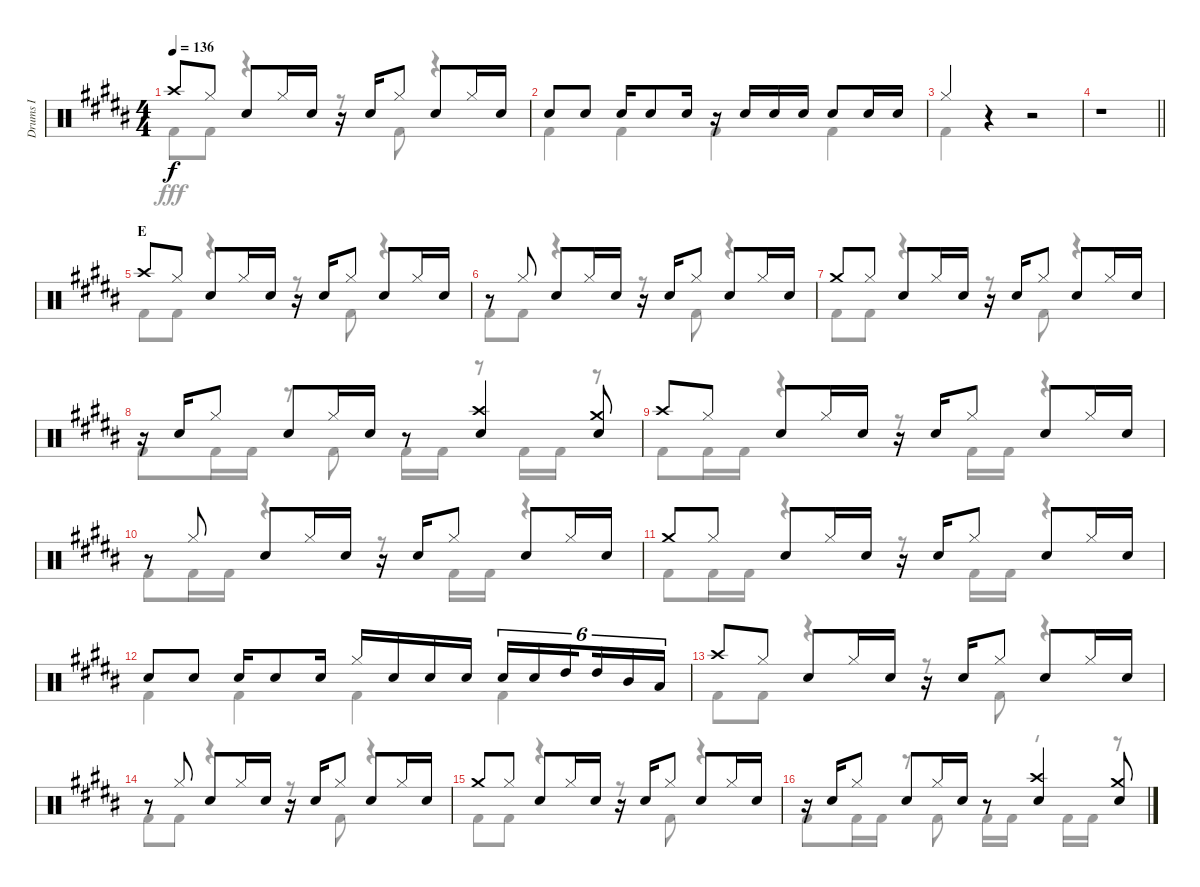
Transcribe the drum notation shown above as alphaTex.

\track ("Drums I" "Drums I") {instrument percussion}
\staff {score}
\articulation defaults
\voice
\ts (4 4)
\tempo 136
\clef neutral
\ks b "Crash high (hit)".8{dy f} "Hi-Hat (closed)".8 "Snare (hit) 2".8 "Hi-Hat (closed)".16 "Snare (hit) 2".16
r.16 "Snare (hit) 2".16 "Hi-Hat (closed)".8 "Snare (hit) 2".8 "Hi-Hat (closed)".16 "Snare (hit) 2".16 |
"Snare (hit) 2".8 "Snare (hit) 2".8 "Snare (hit) 2".16 "Snare (hit) 2".8 "Snare (hit) 2".16 r.16 "Snare (hit) 2".16 "Snare (hit) 2".16 "Snare (hit) 2".16 "Snare (hit) 2".8 "Snare (hit) 2".16 "Snare (hit) 2".16 |
"Hi-Hat (closed)".4 r.4 r.2 |
\barLineRight lightlight
r.1 |
\section ("" "E")
"Crash high (hit)".8 "Hi-Hat (closed)".8 "Snare (hit) 2".8 "Hi-Hat (closed)".16 "Snare (hit) 2".16 r.16 "Snare (hit) 2".16 "Hi-Hat (closed)".8 "Snare (hit) 2".8 "Hi-Hat (closed)".16 "Snare (hit) 2".16 |
r.8 "Hi-Hat (closed)".8 "Snare (hit) 2".8 "Hi-Hat (closed)".16 "Snare (hit) 2".16 r.16 "Snare (hit) 2".16 "Hi-Hat (closed)".8 "Snare (hit) 2".8 "Hi-Hat (closed)".16 "Snare (hit) 2".16 |
"Crash medium (hit)".8 "Hi-Hat (closed)".8 "Snare (hit) 2".8 "Hi-Hat (closed)".16 "Snare (hit) 2".16 r.16 "Snare (hit) 2".16 "Hi-Hat (closed)".8 "Snare (hit) 2".8 "Hi-Hat (closed)".16 "Snare (hit) 2".16 |
r.16 "Snare (hit) 2".16 "Hi-Hat (closed)".8 "Snare (hit) 2".8 "Hi-Hat (closed)".16 "Snare (hit) 2".16 r.8 ("Crash high (hit)" "Snare (hit) 2").4 ("Crash medium (hit)" "Snare (hit) 2").8 |
"Crash high (hit)".8 "Hi-Hat (closed)".8 "Snare (hit) 2".8 "Hi-Hat (closed)".16 "Snare (hit) 2".16 r.16 "Snare (hit) 2".16 "Hi-Hat (closed)".8 "Snare (hit) 2".8 "Hi-Hat (closed)".16 "Snare (hit) 2".16 |
r.8 "Hi-Hat (closed)".8 "Snare (hit) 2".8 "Hi-Hat (closed)".16 "Snare (hit) 2".16 r.16 "Snare (hit) 2".16 "Hi-Hat (closed)".8 "Snare (hit) 2".8 "Hi-Hat (closed)".16 "Snare (hit) 2".16 |
"Crash medium (hit)".8 "Hi-Hat (closed)".8 "Snare (hit) 2".8 "Hi-Hat (closed)".16 "Snare (hit) 2".16 r.16 "Snare (hit) 2".16 "Hi-Hat (closed)".8 "Snare (hit) 2".8 "Hi-Hat (closed)".16 "Snare (hit) 2".16 |
"Snare (hit) 2".8 "Snare (hit) 2".8 "Snare (hit) 2".16 "Snare (hit) 2".8 "Snare (hit) 2".16 "Hi-Hat (closed)".16 "Snare (hit) 2".16 "Snare (hit) 2".16 "Snare (hit) 2".16 "Snare (hit) 2".16{tu (6 4)} "Snare (hit) 2".16{tu (6 4)} "High Tom (hit)".16{tu (6 4) beam splitsecondary} "High Tom (hit)".16{tu (6 4)} "Mid Tom (hit)".16{tu (6 4)} "Low Tom (hit)".16{tu (6 4)} |
"Crash high (hit)".8 "Hi-Hat (closed)".8 "Snare (hit) 2".8 "Hi-Hat (closed)".16 "Snare (hit) 2".16 r.16 "Snare (hit) 2".16 "Hi-Hat (closed)".8 "Snare (hit) 2".8 "Hi-Hat (closed)".16 "Snare (hit) 2".16 |
r.8 "Hi-Hat (closed)".8 "Snare (hit) 2".8 "Hi-Hat (closed)".16 "Snare (hit) 2".16 r.16 "Snare (hit) 2".16 "Hi-Hat (closed)".8 "Snare (hit) 2".8 "Hi-Hat (closed)".16 "Snare (hit) 2".16 |
"Crash medium (hit)".8 "Hi-Hat (closed)".8 "Snare (hit) 2".8 "Hi-Hat (closed)".16 "Snare (hit) 2".16 r.16 "Snare (hit) 2".16 "Hi-Hat (closed)".8 "Snare (hit) 2".8 "Hi-Hat (closed)".16 "Snare (hit) 2".16 |
r.16 "Snare (hit) 2".16 "Hi-Hat (closed)".8 "Snare (hit) 2".8 "Hi-Hat (closed)".16 "Snare (hit) 2".16 r.8 ("Crash high (hit)" "Snare (hit) 2").4 ("Crash medium (hit)" "Snare (hit) 2").8
\voice
\clef neutral
\ottava regular
\simile none
\ks b "Kick (hit) 2".8{dy fff} "Kick (hit) 2".8
r.4 r.8 "Kick (hit) 2".8 r.4 |
"Kick (hit) 2".4 "Kick (hit) 2".4 "Kick (hit) 2".4 "Kick (hit) 2".4 |
"Kick (hit) 2".4 r.4 r.2 |
\barLineRight lightlight
r.1 |
"Kick (hit) 2".8 "Kick (hit) 2".8 r.4 r.8 "Kick (hit) 2".8 r.4 |
"Kick (hit) 2".8 "Kick (hit) 2".8 r.4 r.8 "Kick (hit) 2".8 r.4 |
"Kick (hit) 2".8 "Kick (hit) 2".8 r.4 r.8 "Kick (hit) 2".8 r.4 |
"Kick (hit) 2".8 "Kick (hit) 2".16 "Kick (hit) 2".16 r.8 "Kick (hit) 2".8 "Kick (hit) 2".16 "Kick (hit) 2".16 r.8 "Kick (hit) 2".16 "Kick (hit) 2".16 r.8 |
"Kick (hit) 2".8 "Kick (hit) 2".16 "Kick (hit) 2".16 r.4 r.8 "Kick (hit) 2".16 "Kick (hit) 2".16 r.4 |
"Kick (hit) 2".8 "Kick (hit) 2".16 "Kick (hit) 2".16 r.4 r.8 "Kick (hit) 2".16 "Kick (hit) 2".16 r.4 |
"Kick (hit) 2".8 "Kick (hit) 2".16 "Kick (hit) 2".16 r.4 r.8 "Kick (hit) 2".16 "Kick (hit) 2".16 r.4 |
"Kick (hit) 2".4 "Kick (hit) 2".4 "Kick (hit) 2".4 "Kick (hit) 2".4 |
"Kick (hit) 2".8 "Kick (hit) 2".8 r.4 r.8 "Kick (hit) 2".8 r.4 |
"Kick (hit) 2".8 "Kick (hit) 2".8 r.4 r.8 "Kick (hit) 2".8 r.4 |
"Kick (hit) 2".8 "Kick (hit) 2".8 r.4 r.8 "Kick (hit) 2".8 r.4 |
"Kick (hit) 2".8 "Kick (hit) 2".16 "Kick (hit) 2".16 r.8 "Kick (hit) 2".8 "Kick (hit) 2".16 "Kick (hit) 2".16 r.8 "Kick (hit) 2".16 "Kick (hit) 2".16 r.8
